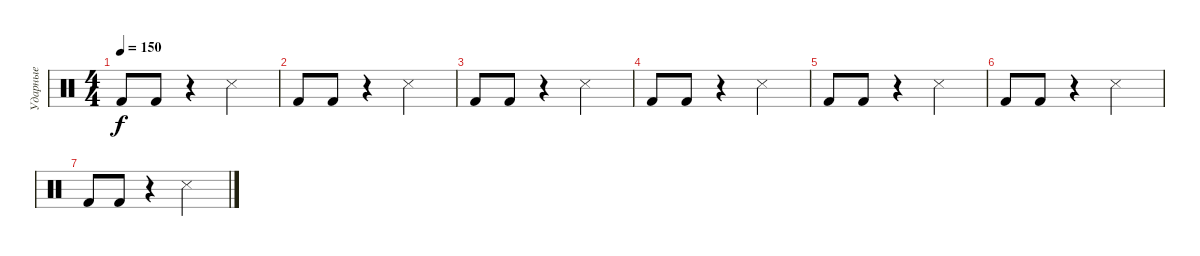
\track ("Ударные" "Ударные") {instrument percussion}
\staff {score}
\articulation defaults
\ts (4 4)
\tempo 150
\clef neutral
\ks c "Kick (hit) 2".8{dy f} "Kick (hit) 2".8
r.4 "Snare (side stick) 3".2 |
"Kick (hit) 2".8 "Kick (hit) 2".8 r.4 "Snare (side stick) 3".2 |
"Kick (hit) 2".8 "Kick (hit) 2".8 r.4 "Snare (side stick) 3".2 |
"Kick (hit) 2".8 "Kick (hit) 2".8 r.4 "Snare (side stick) 3".2 |
"Kick (hit) 2".8 "Kick (hit) 2".8 r.4 "Snare (side stick) 3".2 |
"Kick (hit) 2".8 "Kick (hit) 2".8 r.4 "Snare (side stick) 3".2 |
"Kick (hit) 2".8 "Kick (hit) 2".8 r.4 "Snare (side stick) 3".2
